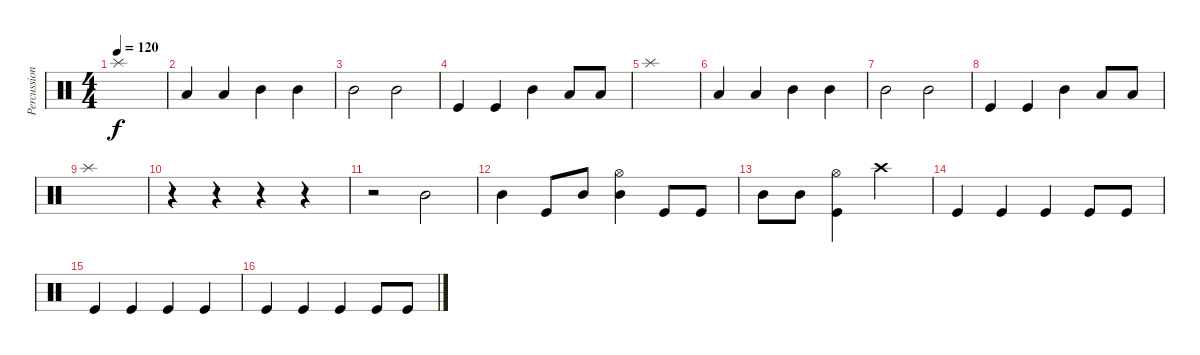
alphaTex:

\track ("Percussion" "Percussion") {instrument percussion}
\staff {score}
\articulation defaults
\ts (4 4)
\tempo 120
\clef neutral
\ks c "Splash (hit)".1{dy f}
|
"Low Tom (hit)".4 "Low Tom (hit)".4 "Mid Tom (hit)".4 "Mid Tom (hit)".4 |
"Mid Tom (hit)".2 "Mid Tom (hit)".2 |
"Kick (hit)".4 "Kick (hit)".4 "Mid Tom (hit)".4 "Low Tom (hit)".8 "Low Tom (hit)".8 |
"Splash (hit)".1 |
"Low Tom (hit)".4 "Low Tom (hit)".4 "Mid Tom (hit)".4 "Mid Tom (hit)".4 |
"Mid Tom (hit)".2 "Mid Tom (hit)".2 |
"Kick (hit)".4 "Kick (hit)".4 "Mid Tom (hit)".4 "Low Tom (hit)".8 "Low Tom (hit)".8 |
"Splash (hit)".1 |
r.4 r.4 r.4 r.4 |
r.2 "Mid Tom (hit)".2 |
"Mid Tom (hit)".4 "Kick (hit)".8 "Mid Tom (hit)".8 ("Mid Tom (hit)" "Hi-Hat (open)").4 "Kick (hit)".8 "Kick (hit)".8 |
"Mid Tom (hit)".8 "Mid Tom (hit)".8 ("Kick (hit)" "Hi-Hat (open)").4 "Crash high (hit)".2 |
"Kick (hit)".4 "Kick (hit)".4 "Kick (hit)".4 "Kick (hit)".8 "Kick (hit)".8 |
"Kick (hit)".4 "Kick (hit)".4 "Kick (hit)".4 "Kick (hit)".4 |
"Kick (hit)".4 "Kick (hit)".4 "Kick (hit)".4 "Kick (hit)".8 "Kick (hit)".8
